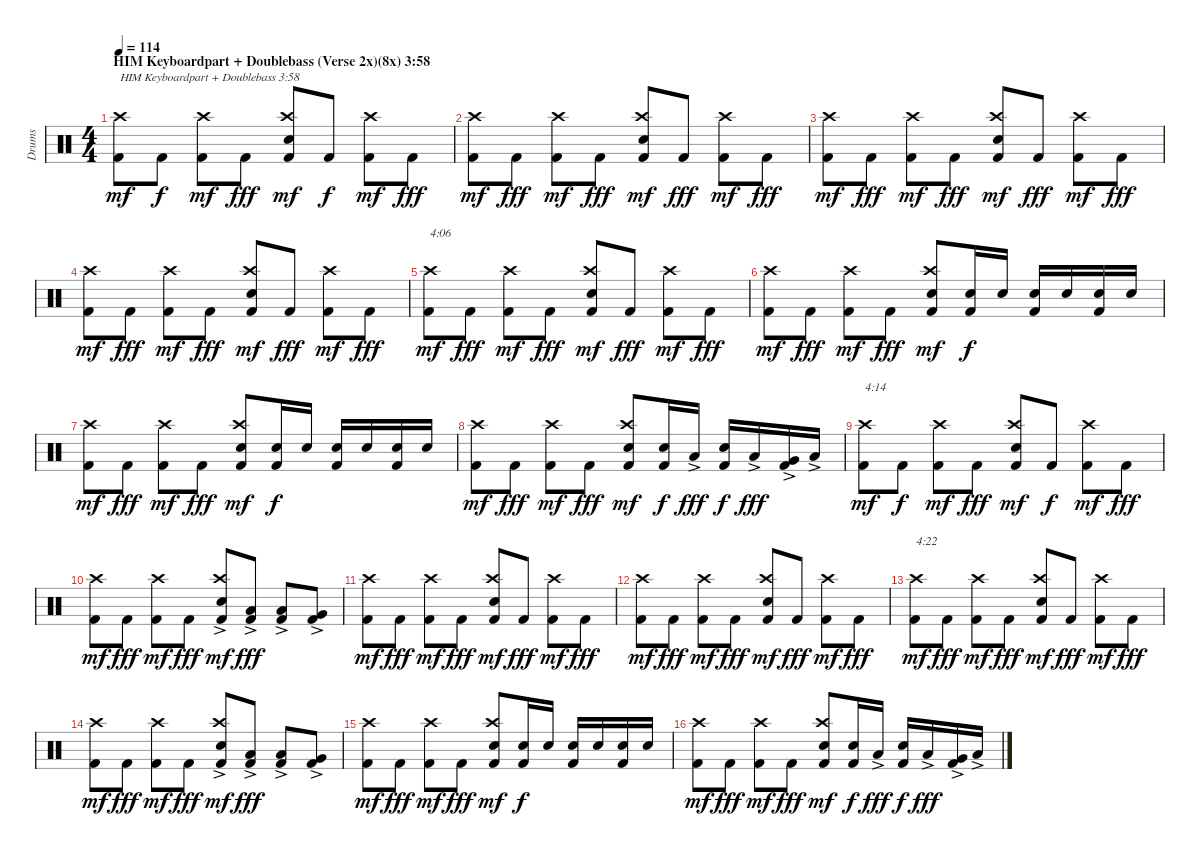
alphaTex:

\track ("Drums" "Drums") {instrument percussion}
\staff {score}
\articulation defaults
\ts (4 4)
\section ("" "HIM Keyboardpart + Doublebass (Verse 2x)(8x) 3:58")
\tempo 114
\clef neutral
\ks c
("Kick (hit) 2" "Crash high (hit)").8{txt "HIM Keyboardpart + Doublebass 3:58" dy mf} "Kick (hit) 2".8{dy f} ("Kick (hit) 2" "Crash high (hit)").8{dy mf} "Kick (hit) 2".8{dy fff} ("Kick (hit) 2" "Electric Snare (hit)" "Crash high (hit)").8{dy mf} "Kick (hit) 2".8{dy f} ("Kick (hit) 2" "Crash high (hit)").8{dy mf} "Kick (hit) 2".8{dy fff} |
("Kick (hit) 2" "Crash high (hit)").8{dy mf} "Kick (hit) 2".8{dy fff} ("Kick (hit) 2" "Crash high (hit)").8{dy mf} "Kick (hit) 2".8{dy fff} ("Kick (hit) 2" "Electric Snare (hit)" "Crash high (hit)").8{dy mf} "Kick (hit) 2".8{dy fff} ("Kick (hit) 2" "Crash high (hit)").8{dy mf} "Kick (hit) 2".8{dy fff} |
("Kick (hit) 2" "Crash high (hit)").8{dy mf} "Kick (hit) 2".8{dy fff} ("Kick (hit) 2" "Crash high (hit)").8{dy mf} "Kick (hit) 2".8{dy fff} ("Kick (hit) 2" "Electric Snare (hit)" "Crash high (hit)").8{dy mf} "Kick (hit) 2".8{dy fff} ("Kick (hit) 2" "Crash high (hit)").8{dy mf} "Kick (hit) 2".8{dy fff} |
("Kick (hit) 2" "Crash high (hit)").8{dy mf} "Kick (hit) 2".8{dy fff} ("Kick (hit) 2" "Crash high (hit)").8{dy mf} "Kick (hit) 2".8{dy fff} ("Kick (hit) 2" "Electric Snare (hit)" "Crash high (hit)").8{dy mf} "Kick (hit) 2".8{dy fff} ("Kick (hit) 2" "Crash high (hit)").8{dy mf} "Kick (hit) 2".8{dy fff} |
("Kick (hit) 2" "Crash high (hit)").8{txt "4:06" dy mf} "Kick (hit) 2".8{dy fff} ("Kick (hit) 2" "Crash high (hit)").8{dy mf} "Kick (hit) 2".8{dy fff} ("Kick (hit) 2" "Electric Snare (hit)" "Crash high (hit)").8{dy mf} "Kick (hit) 2".8{dy fff} ("Kick (hit) 2" "Crash high (hit)").8{dy mf} "Kick (hit) 2".8{dy fff} |
("Kick (hit) 2" "Crash high (hit)").8{dy mf} "Kick (hit) 2".8{dy fff} ("Kick (hit) 2" "Crash high (hit)").8{dy mf} "Kick (hit) 2".8{dy fff} ("Kick (hit) 2" "Electric Snare (hit)" "Crash high (hit)").8{dy mf} ("Kick (hit) 2" "Electric Snare (hit)").16{dy f} "Electric Snare (hit)".16 ("Kick (hit) 2" "Electric Snare (hit)").16 "Electric Snare (hit)".16 ("Kick (hit) 2" "Electric Snare (hit)").16 "Electric Snare (hit)".16 |
("Kick (hit) 2" "Crash high (hit)").8{dy mf} "Kick (hit) 2".8{dy fff} ("Kick (hit) 2" "Crash high (hit)").8{dy mf} "Kick (hit) 2".8{dy fff} ("Kick (hit) 2" "Electric Snare (hit)" "Crash high (hit)").8{dy mf} ("Kick (hit) 2" "Electric Snare (hit)").16{dy f} "Electric Snare (hit)".16 ("Kick (hit) 2" "Electric Snare (hit)").16 "Electric Snare (hit)".16 ("Kick (hit) 2" "Electric Snare (hit)").16 "Electric Snare (hit)".16 |
("Kick (hit) 2" "Crash high (hit)").8{dy mf} "Kick (hit) 2".8{dy fff} ("Kick (hit) 2" "Crash high (hit)").8{dy mf} "Kick (hit) 2".8{dy fff} ("Kick (hit) 2" "Electric Snare (hit)" "Crash high (hit)").8{dy mf} ("Kick (hit) 2" "Electric Snare (hit)").16{dy f} "Low Tom (hit)"{ac}.16{dy fff} ("Kick (hit) 2" "Electric Snare (hit)").16{dy f} "Low Tom (hit)"{ac}.16{dy fff} ("Kick (hit) 2" "Very Low Tom (hit)"{ac}).16 "Low Floor Tom (hit)"{ac}.16 |
("Kick (hit) 2" "Crash high (hit)").8{txt "4:14" dy mf} "Kick (hit) 2".8{dy f} ("Kick (hit) 2" "Crash high (hit)").8{dy mf} "Kick (hit) 2".8{dy fff} ("Kick (hit) 2" "Electric Snare (hit)" "Crash high (hit)").8{dy mf} "Kick (hit) 2".8{dy f} ("Kick (hit) 2" "Crash high (hit)").8{dy mf} "Kick (hit) 2".8{dy fff} |
("Kick (hit) 2" "Crash high (hit)").8{dy mf} "Kick (hit) 2".8{dy fff} ("Kick (hit) 2" "Crash high (hit)").8{dy mf} "Kick (hit) 2".8{dy fff} ("Kick (hit) 2" "Electric Snare (hit)"{ac} "Crash high (hit)").8{dy mf} ("Kick (hit) 2" "Low Tom (hit)"{ac}).8{dy fff} ("Kick (hit) 2" "Low Tom (hit)"{ac}).8 ("Kick (hit) 2" "Very Low Tom (hit)"{ac}).8 |
("Kick (hit) 2" "Crash high (hit)").8{dy mf} "Kick (hit) 2".8{dy fff} ("Kick (hit) 2" "Crash high (hit)").8{dy mf} "Kick (hit) 2".8{dy fff} ("Kick (hit) 2" "Electric Snare (hit)" "Crash high (hit)").8{dy mf} "Kick (hit) 2".8{dy fff} ("Kick (hit) 2" "Crash high (hit)").8{dy mf} "Kick (hit) 2".8{dy fff} |
("Kick (hit) 2" "Crash high (hit)").8{dy mf} "Kick (hit) 2".8{dy fff} ("Kick (hit) 2" "Crash high (hit)").8{dy mf} "Kick (hit) 2".8{dy fff} ("Kick (hit) 2" "Electric Snare (hit)" "Crash high (hit)").8{dy mf} "Kick (hit) 2".8{dy fff} ("Kick (hit) 2" "Crash high (hit)").8{dy mf} "Kick (hit) 2".8{dy fff} |
("Kick (hit) 2" "Crash high (hit)").8{txt "4:22" dy mf} "Kick (hit) 2".8{dy fff} ("Kick (hit) 2" "Crash high (hit)").8{dy mf} "Kick (hit) 2".8{dy fff} ("Kick (hit) 2" "Electric Snare (hit)" "Crash high (hit)").8{dy mf} "Kick (hit) 2".8{dy fff} ("Kick (hit) 2" "Crash high (hit)").8{dy mf} "Kick (hit) 2".8{dy fff} |
("Kick (hit) 2" "Crash high (hit)").8{dy mf} "Kick (hit) 2".8{dy fff} ("Kick (hit) 2" "Crash high (hit)").8{dy mf} "Kick (hit) 2".8{dy fff} ("Kick (hit) 2" "Electric Snare (hit)"{ac} "Crash high (hit)").8{dy mf} ("Kick (hit) 2" "Low Tom (hit)"{ac}).8{dy fff} ("Kick (hit) 2" "Low Tom (hit)"{ac}).8 ("Kick (hit) 2" "Very Low Tom (hit)"{ac}).8 |
("Kick (hit) 2" "Crash high (hit)").8{dy mf} "Kick (hit) 2".8{dy fff} ("Kick (hit) 2" "Crash high (hit)").8{dy mf} "Kick (hit) 2".8{dy fff} ("Kick (hit) 2" "Electric Snare (hit)" "Crash high (hit)").8{dy mf} ("Kick (hit) 2" "Electric Snare (hit)").16{dy f} "Electric Snare (hit)".16 ("Kick (hit) 2" "Electric Snare (hit)").16 "Electric Snare (hit)".16 ("Kick (hit) 2" "Electric Snare (hit)").16 "Electric Snare (hit)".16 |
("Kick (hit) 2" "Crash high (hit)").8{dy mf} "Kick (hit) 2".8{dy fff} ("Kick (hit) 2" "Crash high (hit)").8{dy mf} "Kick (hit) 2".8{dy fff} ("Kick (hit) 2" "Electric Snare (hit)" "Crash high (hit)").8{dy mf} ("Kick (hit) 2" "Electric Snare (hit)").16{dy f} "Low Tom (hit)"{ac}.16{dy fff} ("Kick (hit) 2" "Electric Snare (hit)").16{dy f} "Low Tom (hit)"{ac}.16{dy fff} ("Kick (hit) 2" "Very Low Tom (hit)"{ac}).16 "Low Floor Tom (hit)"{ac}.16
